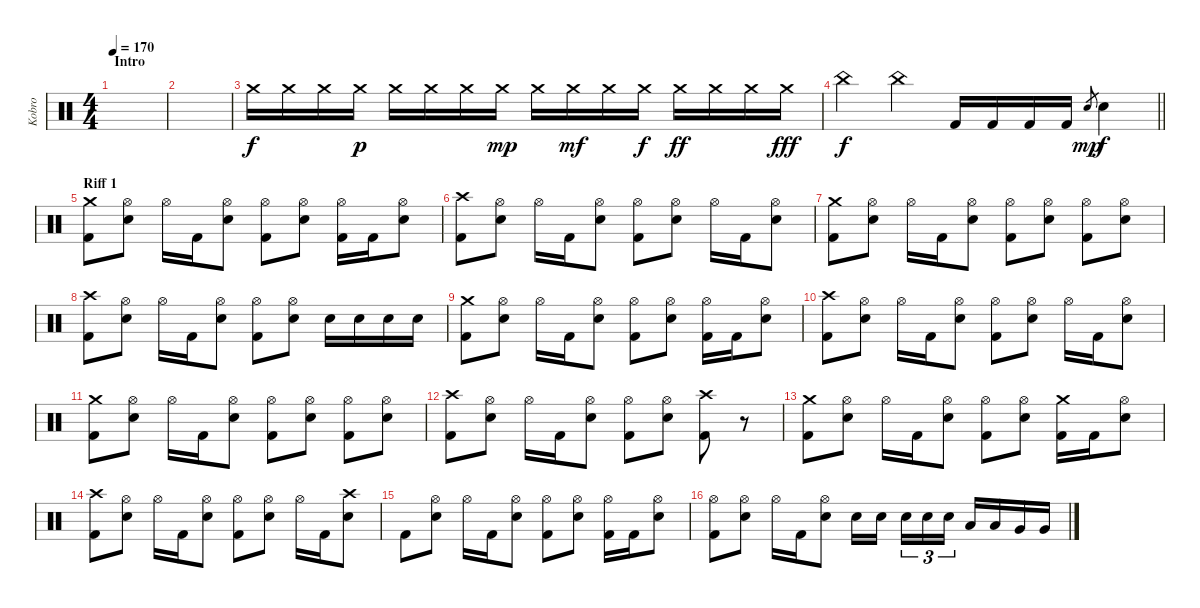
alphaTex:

\track ("Kobro" "Kobro") {instrument percussion}
\staff {score}
\articulation defaults
\ts (4 4)
\section ("" "Intro")
\tempo 170
\clef neutral
\ks c
|
|
"Crash medium (hit)".16 "Crash medium (hit)".16 "Crash medium (hit)".16 "Crash medium (hit)".16{dy p} "Crash medium (hit)".16 "Crash medium (hit)".16 "Crash medium (hit)".16 "Crash medium (hit)".16{dy mp} "Crash medium (hit)".16 "Crash medium (hit)".16{dy mf} "Crash medium (hit)".16 "Crash medium (hit)".16{dy f} "Crash medium (hit)".16{dy ff} "Crash medium (hit)".16 "Crash medium (hit)".16 "Crash medium (hit)".16{dy fff} |
\barLineRight lightlight "China (hit)".4{dy f} "China (hit)".4 "Kick (hit) 2".16 "Kick (hit) 2".16 "Kick (hit) 2".16 "Kick (hit) 2".16 "Electric Snare (hit)".8{gr dy mp} "Electric Snare (hit)".4{dy f}
|
\section ("" "Riff 1")
("Crash medium (hit)" "Kick (hit) 2").8 ("Hi-Hat (open)" "Electric Snare (hit)").8 "Hi-Hat (open)".16 "Kick (hit) 2".16 ("Hi-Hat (open)" "Electric Snare (hit)").8 ("Hi-Hat (open)" "Kick (hit) 2").8 ("Hi-Hat (open)" "Electric Snare (hit)").8 ("Hi-Hat (open)" "Kick (hit) 2").16 "Kick (hit) 2".16 ("Hi-Hat (open)" "Electric Snare (hit)").8 |
("Crash high (hit)" "Kick (hit) 2").8 ("Hi-Hat (open)" "Electric Snare (hit)").8 "Hi-Hat (open)".16 "Kick (hit) 2".16 ("Hi-Hat (open)" "Electric Snare (hit)").8 ("Hi-Hat (open)" "Kick (hit) 2").8 ("Hi-Hat (open)" "Electric Snare (hit)").8 "Hi-Hat (open)".16 "Kick (hit) 2".16 ("Hi-Hat (open)" "Electric Snare (hit)").8 |
("Crash medium (hit)" "Kick (hit) 2").8 ("Hi-Hat (open)" "Electric Snare (hit)").8 "Hi-Hat (open)".16 "Kick (hit) 2".16 ("Hi-Hat (open)" "Electric Snare (hit)").8 ("Hi-Hat (open)" "Kick (hit) 2").8 ("Hi-Hat (open)" "Electric Snare (hit)").8 ("Hi-Hat (open)" "Kick (hit) 2").8 ("Hi-Hat (open)" "Electric Snare (hit)").8 |
("Crash high (hit)" "Kick (hit) 2").8 ("Hi-Hat (open)" "Electric Snare (hit)").8 "Hi-Hat (open)".16 "Kick (hit) 2".16 ("Hi-Hat (open)" "Electric Snare (hit)").8 ("Hi-Hat (open)" "Kick (hit) 2").8 ("Hi-Hat (open)" "Electric Snare (hit)").8 "Electric Snare (hit)".16 "Electric Snare (hit)".16 "Electric Snare (hit)".16 "Electric Snare (hit)".16 |
("Crash medium (hit)" "Kick (hit) 2").8 ("Hi-Hat (open)" "Electric Snare (hit)").8 "Hi-Hat (open)".16 "Kick (hit) 2".16 ("Hi-Hat (open)" "Electric Snare (hit)").8 ("Hi-Hat (open)" "Kick (hit) 2").8 ("Hi-Hat (open)" "Electric Snare (hit)").8 ("Hi-Hat (open)" "Kick (hit) 2").16 "Kick (hit) 2".16 ("Hi-Hat (open)" "Electric Snare (hit)").8 |
("Crash high (hit)" "Kick (hit) 2").8 ("Hi-Hat (open)" "Electric Snare (hit)").8 "Hi-Hat (open)".16 "Kick (hit) 2".16 ("Hi-Hat (open)" "Electric Snare (hit)").8 ("Hi-Hat (open)" "Kick (hit) 2").8 ("Hi-Hat (open)" "Electric Snare (hit)").8 "Hi-Hat (open)".16 "Kick (hit) 2".16 ("Hi-Hat (open)" "Electric Snare (hit)").8 |
("Crash medium (hit)" "Kick (hit) 2").8 ("Hi-Hat (open)" "Electric Snare (hit)").8 "Hi-Hat (open)".16 "Kick (hit) 2".16 ("Hi-Hat (open)" "Electric Snare (hit)").8 ("Hi-Hat (open)" "Kick (hit) 2").8 ("Hi-Hat (open)" "Electric Snare (hit)").8 ("Hi-Hat (open)" "Kick (hit) 2").8 ("Hi-Hat (open)" "Electric Snare (hit)").8 |
("Crash high (hit)" "Kick (hit) 2").8 ("Hi-Hat (open)" "Electric Snare (hit)").8 "Hi-Hat (open)".16 "Kick (hit) 2".16 ("Hi-Hat (open)" "Electric Snare (hit)").8 ("Hi-Hat (open)" "Kick (hit) 2").8 ("Hi-Hat (open)" "Electric Snare (hit)").8 ("Crash high (hit)" "Kick (hit) 2").8 r.8{volume 0} |
("Crash medium (hit)" "Kick (hit) 2").8{volume 13} ("Hi-Hat (open)" "Electric Snare (hit)").8 "Hi-Hat (open)".16 "Kick (hit) 2".16 ("Hi-Hat (open)" "Electric Snare (hit)").8 ("Hi-Hat (open)" "Kick (hit) 2").8 ("Hi-Hat (open)" "Electric Snare (hit)").8 ("Crash medium (hit)" "Kick (hit) 2").16 "Kick (hit) 2".16 ("Hi-Hat (open)" "Electric Snare (hit)").8 |
("Crash high (hit)" "Kick (hit) 2").8 ("Hi-Hat (open)" "Electric Snare (hit)").8 "Hi-Hat (open)".16 "Kick (hit) 2".16 ("Hi-Hat (open)" "Electric Snare (hit)").8 ("Hi-Hat (open)" "Kick (hit) 2").8 ("Hi-Hat (open)" "Electric Snare (hit)").8 "Hi-Hat (open)".16 "Kick (hit) 2".16 ("Crash high (hit)" "Electric Snare (hit)").8 |
"Kick (hit) 2".8 ("Hi-Hat (open)" "Electric Snare (hit)").8 "Hi-Hat (open)".16 "Kick (hit) 2".16 ("Hi-Hat (open)" "Electric Snare (hit)").8 ("Hi-Hat (open)" "Kick (hit) 2").8 ("Hi-Hat (open)" "Electric Snare (hit)").8 ("Hi-Hat (open)" "Kick (hit) 2").16 "Kick (hit) 2".16 ("Hi-Hat (open)" "Electric Snare (hit)").8 |
("Hi-Hat (open)" "Kick (hit) 2").8 ("Hi-Hat (open)" "Electric Snare (hit)").8 "Hi-Hat (open)".16 "Kick (hit) 2".16 ("Hi-Hat (open)" "Electric Snare (hit)").8 "Electric Snare (hit)".16 "Electric Snare (hit)".16 "Electric Snare (hit)".16{tu (3 2)} "Electric Snare (hit)".16{tu (3 2)} "Electric Snare (hit)".16{tu (3 2)} "Low Tom (hit)".16 "Low Tom (hit)".16 "Very Low Tom (hit)".16 "Very Low Tom (hit)".16
